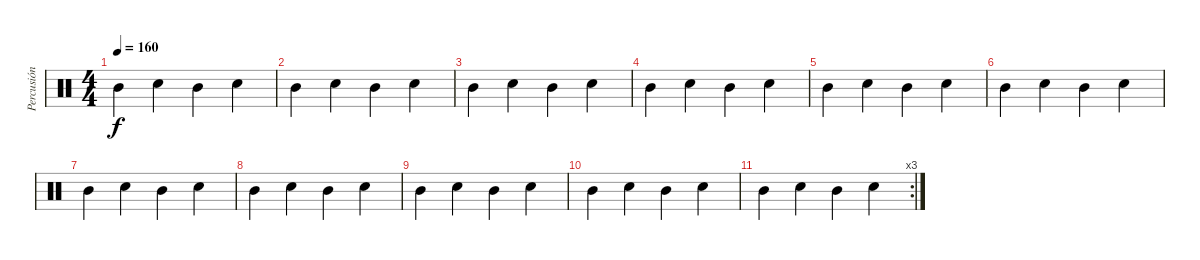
\track ("Percusión" "Percusión") {instrument percussion}
\staff {score}
\articulation defaults
\ts (4 4)
\tempo 160
\clef neutral
\ks c "Mid Tom (hit)".4{dy f} "Electric Snare (hit)".4 "Mid Tom (hit)".4 "Electric Snare (hit)".4
|
"Mid Tom (hit)".4 "Electric Snare (hit)".4 "Mid Tom (hit)".4 "Electric Snare (hit)".4 |
"Mid Tom (hit)".4 "Electric Snare (hit)".4 "Mid Tom (hit)".4 "Electric Snare (hit)".4 |
"Mid Tom (hit)".4 "Electric Snare (hit)".4 "Mid Tom (hit)".4 "Electric Snare (hit)".4 |
"Mid Tom (hit)".4 "Electric Snare (hit)".4 "Mid Tom (hit)".4 "Electric Snare (hit)".4 |
"Mid Tom (hit)".4 "Electric Snare (hit)".4 "Mid Tom (hit)".4 "Electric Snare (hit)".4 |
"Mid Tom (hit)".4 "Electric Snare (hit)".4 "Mid Tom (hit)".4 "Electric Snare (hit)".4 |
"Mid Tom (hit)".4 "Electric Snare (hit)".4 "Mid Tom (hit)".4 "Electric Snare (hit)".4 |
"Mid Tom (hit)".4 "Electric Snare (hit)".4 "Mid Tom (hit)".4 "Electric Snare (hit)".4 |
"Mid Tom (hit)".4 "Electric Snare (hit)".4 "Mid Tom (hit)".4 "Electric Snare (hit)".4 |
\rc 3 "Mid Tom (hit)".4 "Electric Snare (hit)".4 "Mid Tom (hit)".4 "Electric Snare (hit)".4
